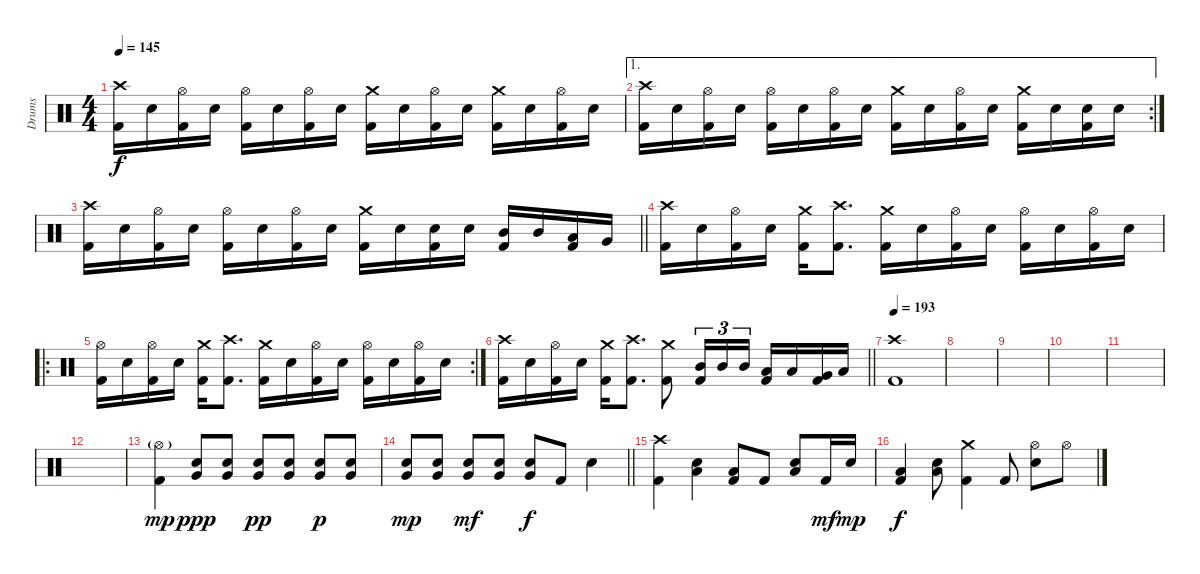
\track ("Drums" "Drums") {instrument percussion}
\staff {score}
\articulation defaults
\ts (4 4)
\tempo 145
\clef neutral
\ks c
("Crash high (hit)" "Kick (hit) 2").16{dy f} "Electric Snare (hit)".16 ("Hi-Hat (open)" "Kick (hit) 2").16 "Electric Snare (hit)".16 ("Hi-Hat (open)" "Kick (hit) 2").16 "Electric Snare (hit)".16 ("Hi-Hat (open)" "Kick (hit) 2").16 "Electric Snare (hit)".16 ("Crash medium (hit)" "Kick (hit) 2").16 "Electric Snare (hit)".16 ("Hi-Hat (open)" "Kick (hit) 2").16 "Electric Snare (hit)".16 ("Crash medium (hit)" "Kick (hit) 2").16 "Electric Snare (hit)".16 ("Hi-Hat (open)" "Kick (hit) 2").16 "Electric Snare (hit)".16 |
\ae 1
\rc 2
("Crash high (hit)" "Kick (hit) 2").16 "Electric Snare (hit)".16 ("Hi-Hat (open)" "Kick (hit) 2").16 "Electric Snare (hit)".16 ("Hi-Hat (open)" "Kick (hit) 2").16 "Electric Snare (hit)".16 ("Hi-Hat (open)" "Kick (hit) 2").16 "Electric Snare (hit)".16 ("Crash medium (hit)" "Kick (hit) 2").16 "Electric Snare (hit)".16 ("Hi-Hat (open)" "Kick (hit) 2").16 "Electric Snare (hit)".16 ("Crash medium (hit)" "Kick (hit) 2").16 "Electric Snare (hit)".16 ("Electric Snare (hit)" "Kick (hit) 2").16 "Electric Snare (hit)".16 |
\barLineRight lightlight
("Crash high (hit)" "Kick (hit) 2").16 "Electric Snare (hit)".16 ("Hi-Hat (open)" "Kick (hit) 2").16 "Electric Snare (hit)".16 ("Hi-Hat (open)" "Kick (hit) 2").16 "Electric Snare (hit)".16 ("Hi-Hat (open)" "Kick (hit) 2").16 "Electric Snare (hit)".16 ("Crash medium (hit)" "Kick (hit) 2").16 "Electric Snare (hit)".16 ("Electric Snare (hit)" "Kick (hit) 2").16 "Electric Snare (hit)".16 ("Mid Tom (hit)" "Kick (hit) 2").16 "Mid Tom (hit)".16 ("Low Tom (hit)" "Kick (hit) 2").16 "Very Low Tom (hit)".16 |
\section ("" "")
("Crash high (hit)" "Kick (hit) 2").16 "Electric Snare (hit)".16 ("Hi-Hat (open)" "Kick (hit) 2").16 "Electric Snare (hit)".16 ("Crash medium (hit)" "Kick (hit) 2").16 ("Crash high (hit)" "Kick (hit) 2").8{d} ("Crash medium (hit)" "Kick (hit) 2").16 "Electric Snare (hit)".16 ("Hi-Hat (open)" "Kick (hit) 2").16 "Electric Snare (hit)".16 ("Hi-Hat (open)" "Kick (hit) 2").16 "Electric Snare (hit)".16 ("Hi-Hat (open)" "Kick (hit) 2").16 "Electric Snare (hit)".16 |
\ro
\rc 2
("Hi-Hat (open)" "Kick (hit) 2").16 "Electric Snare (hit)".16 ("Hi-Hat (open)" "Kick (hit) 2").16 "Electric Snare (hit)".16 ("Crash medium (hit)" "Kick (hit) 2").16 ("Crash high (hit)" "Kick (hit) 2").8{d} ("Crash medium (hit)" "Kick (hit) 2").16 "Electric Snare (hit)".16 ("Hi-Hat (open)" "Kick (hit) 2").16 "Electric Snare (hit)".16 ("Hi-Hat (open)" "Kick (hit) 2").16 "Electric Snare (hit)".16 ("Hi-Hat (open)" "Kick (hit) 2").16 "Electric Snare (hit)".16 |
\barLineRight lightlight
("Crash high (hit)" "Kick (hit) 2").16 "Electric Snare (hit)".16 ("Hi-Hat (open)" "Kick (hit) 2").16 "Electric Snare (hit)".16 ("Crash medium (hit)" "Kick (hit) 2").16 ("Crash high (hit)" "Kick (hit) 2").8{d} ("Crash medium (hit)" "Kick (hit) 2").8 ("Mid Tom (hit)" "Kick (hit) 2").16{tu (3 2)} "Mid Tom (hit)".16{tu (3 2)} "Mid Tom (hit)".16{tu (3 2)} ("Low Tom (hit)" "Kick (hit) 2").16 "Low Tom (hit)".16 ("Very Low Tom (hit)" "Kick (hit) 2").16 "Low Floor Tom (hit)".16 |
\section ("" "")
\tempo 193
("Crash high (hit)" "Kick (hit) 2").1 |
|
|
|
|
|
("Hi-Hat (open)"{g} "Kick (hit) 2").4{dy mp} ("Electric Snare (hit)" "Very Low Tom (hit)").8{dy ppp} ("Electric Snare (hit)" "Very Low Tom (hit)").8 ("Electric Snare (hit)" "Very Low Tom (hit)").8{dy pp} ("Electric Snare (hit)" "Very Low Tom (hit)").8 ("Electric Snare (hit)" "Very Low Tom (hit)").8{dy p} ("Electric Snare (hit)" "Very Low Tom (hit)").8 |
\barLineRight lightlight
("Electric Snare (hit)" "Very Low Tom (hit)").8{dy mp} ("Electric Snare (hit)" "Very Low Tom (hit)").8 ("Electric Snare (hit)" "Very Low Tom (hit)").8{dy mf} ("Electric Snare (hit)" "Very Low Tom (hit)").8 ("Electric Snare (hit)" "Very Low Tom (hit)").8{dy f} "Kick (hit) 2".8 "Electric Snare (hit)".4 |
\section ("" "")
("Crash high (hit)" "Kick (hit) 2").4 ("Electric Snare (hit)" "Low Floor Tom (hit)").4 ("Low Floor Tom (hit)" "Kick (hit) 2").8 "Kick (hit) 2".8 ("Electric Snare (hit)" "Low Floor Tom (hit)").8 "Kick (hit) 2".16{dy mf} "Electric Snare (hit)".16{dy mp} |
("Low Floor Tom (hit)" "Kick (hit) 2").4{dy f} ("Electric Snare (hit)" "Low Floor Tom (hit)").8 ("Crash medium (hit)" "Kick (hit) 2").4 "Kick (hit) 2".8 ("Hi-Hat (open)" "Electric Snare (hit)").8 "Hi-Hat (open)".8
